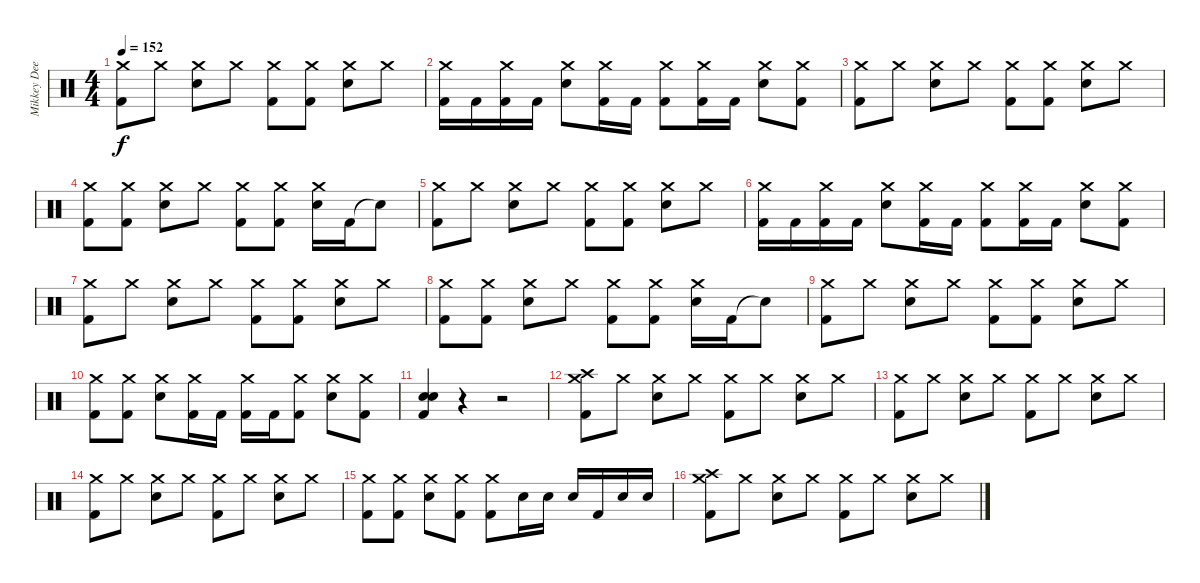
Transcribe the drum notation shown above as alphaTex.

\track ("Mikkey Dee" "Mikkey Dee") {instrument percussion}
\staff {score}
\articulation defaults
\ts (4 4)
\tempo 152
\clef neutral
\ks c
("Crash medium (hit)" "Kick (hit) 2").8{dy f} "Crash medium (hit)".8 ("Crash medium (hit)" "Snare (hit) 2").8 "Crash medium (hit)".8 ("Crash medium (hit)" "Kick (hit) 2").8 ("Crash medium (hit)" "Kick (hit) 2").8 ("Crash medium (hit)" "Snare (hit) 2").8 "Crash medium (hit)".8 |
("Crash medium (hit)" "Kick (hit) 2").16 "Kick (hit) 2".16 ("Crash medium (hit)" "Kick (hit) 2").16 "Kick (hit) 2".16 ("Crash medium (hit)" "Snare (hit) 2").8 ("Crash medium (hit)" "Kick (hit) 2").16 "Kick (hit) 2".16 ("Crash medium (hit)" "Kick (hit) 2").8 ("Crash medium (hit)" "Kick (hit) 2").16 "Kick (hit) 2".16 ("Crash medium (hit)" "Snare (hit) 2").8 ("Crash medium (hit)" "Kick (hit) 2").8 |
("Crash medium (hit)" "Kick (hit) 2").8 "Crash medium (hit)".8 ("Crash medium (hit)" "Snare (hit) 2").8 "Crash medium (hit)".8 ("Crash medium (hit)" "Kick (hit) 2").8 ("Crash medium (hit)" "Kick (hit) 2").8 ("Crash medium (hit)" "Snare (hit) 2").8 "Crash medium (hit)".8 |
("Crash medium (hit)" "Kick (hit) 2").8 ("Crash medium (hit)" "Kick (hit) 2").8 ("Crash medium (hit)" "Snare (hit) 2").8 "Crash medium (hit)".8 ("Crash medium (hit)" "Kick (hit) 2").8 ("Crash medium (hit)" "Kick (hit) 2").8 ("Crash medium (hit)" "Snare (hit) 2").16 "Kick (hit) 2".16 "Snare (hit)"{t}.8 |
("Crash medium (hit)" "Kick (hit) 2").8 "Crash medium (hit)".8 ("Crash medium (hit)" "Snare (hit) 2").8 "Crash medium (hit)".8 ("Crash medium (hit)" "Kick (hit) 2").8 ("Crash medium (hit)" "Kick (hit) 2").8 ("Crash medium (hit)" "Snare (hit) 2").8 "Crash medium (hit)".8 |
("Crash medium (hit)" "Kick (hit) 2").16 "Kick (hit) 2".16 ("Crash medium (hit)" "Kick (hit) 2").16 "Kick (hit) 2".16 ("Crash medium (hit)" "Snare (hit) 2").8 ("Crash medium (hit)" "Kick (hit) 2").16 "Kick (hit) 2".16 ("Crash medium (hit)" "Kick (hit) 2").8 ("Crash medium (hit)" "Kick (hit) 2").16 "Kick (hit) 2".16 ("Crash medium (hit)" "Snare (hit) 2").8 ("Crash medium (hit)" "Kick (hit) 2").8 |
("Crash medium (hit)" "Kick (hit) 2").8 "Crash medium (hit)".8 ("Crash medium (hit)" "Snare (hit) 2").8 "Crash medium (hit)".8 ("Crash medium (hit)" "Kick (hit) 2").8 ("Crash medium (hit)" "Kick (hit) 2").8 ("Crash medium (hit)" "Snare (hit) 2").8 "Crash medium (hit)".8 |
("Crash medium (hit)" "Kick (hit) 2").8 ("Crash medium (hit)" "Kick (hit) 2").8 ("Crash medium (hit)" "Snare (hit) 2").8 "Crash medium (hit)".8 ("Crash medium (hit)" "Kick (hit) 2").8 ("Crash medium (hit)" "Kick (hit) 2").8 ("Crash medium (hit)" "Snare (hit) 2").16 "Kick (hit) 2".16 "Snare (hit)"{t}.8 |
("Crash medium (hit)" "Kick (hit) 2").8 "Crash medium (hit)".8 ("Crash medium (hit)" "Snare (hit) 2").8 "Crash medium (hit)".8 ("Crash medium (hit)" "Kick (hit) 2").8 ("Crash medium (hit)" "Kick (hit) 2").8 ("Crash medium (hit)" "Snare (hit) 2").8 "Crash medium (hit)".8 |
("Crash medium (hit)" "Kick (hit) 2").8 ("Crash medium (hit)" "Kick (hit) 2").8 ("Crash medium (hit)" "Snare (hit) 2").8 ("Crash medium (hit)" "Kick (hit) 2").16 "Kick (hit) 2".16 ("Crash medium (hit)" "Kick (hit) 2").16 "Kick (hit) 2".16 ("Crash medium (hit)" "Kick (hit) 2").8 ("Crash medium (hit)" "Snare (hit) 2").8 ("Crash medium (hit)" "Kick (hit) 2").8 |
("Snare (hit) 2" "Snare (hit) 2" "Kick (hit) 2").4 r.4 r.2 |
("Crash medium (hit)" "Crash high (hit)" "Kick (hit) 2").8 "Crash medium (hit)".8 ("Crash medium (hit)" "Snare (hit) 2").8 "Crash medium (hit)".8 ("Crash medium (hit)" "Kick (hit) 2").8 "Crash medium (hit)".8 ("Crash medium (hit)" "Snare (hit) 2").8 "Crash medium (hit)".8 |
("Crash medium (hit)" "Kick (hit) 2").8 "Crash medium (hit)".8 ("Crash medium (hit)" "Snare (hit) 2").8 "Crash medium (hit)".8 ("Crash medium (hit)" "Kick (hit) 2").8 "Crash medium (hit)".8 ("Crash medium (hit)" "Snare (hit) 2").8 "Crash medium (hit)".8 |
("Crash medium (hit)" "Kick (hit) 2").8 "Crash medium (hit)".8 ("Crash medium (hit)" "Snare (hit) 2").8 "Crash medium (hit)".8 ("Crash medium (hit)" "Kick (hit) 2").8 "Crash medium (hit)".8 ("Crash medium (hit)" "Snare (hit) 2").8 "Crash medium (hit)".8 |
("Crash medium (hit)" "Kick (hit) 2").8 ("Crash medium (hit)" "Kick (hit) 2").8 ("Crash medium (hit)" "Snare (hit) 2").8 ("Crash medium (hit)" "Kick (hit) 2").8 ("Crash medium (hit)" "Kick (hit) 2").8 "Snare (hit) 2".16 "Snare (hit) 2".16 "Snare (hit) 2".16 "Kick (hit) 2".16 "Snare (hit) 2".16 "Snare (hit) 2".16 |
("Crash medium (hit)" "Crash high (hit)" "Kick (hit) 2").8 "Crash medium (hit)".8 ("Crash medium (hit)" "Snare (hit) 2").8 "Crash medium (hit)".8 ("Crash medium (hit)" "Kick (hit) 2").8 "Crash medium (hit)".8 ("Crash medium (hit)" "Snare (hit) 2").8 "Crash medium (hit)".8
